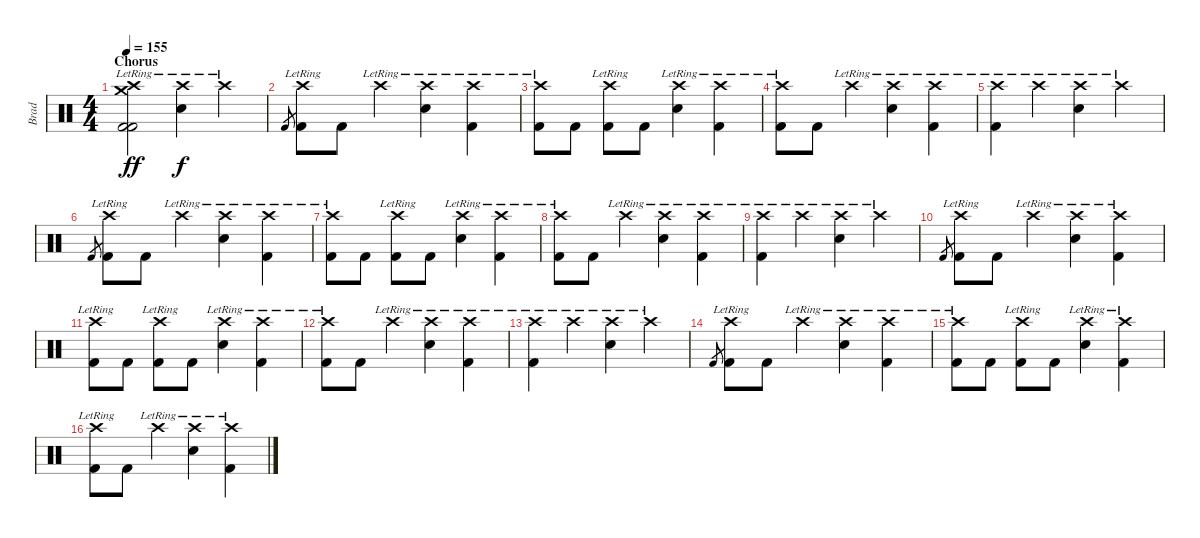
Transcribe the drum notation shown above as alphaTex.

\track ("Brad" "Brad") {instrument percussion}
\staff {score}
\articulation defaults
\ts (4 4)
\section ("" "Chorus")
\tempo 155
\clef neutral
\ks c
("Crash high (hit)"{lr} "Crash medium (hit)"{lr} "Kick (hit) 2" "Kick (hit) 2").2{dy ff} ("Crash high (hit)"{lr} "Electric Snare (hit)").4{dy f} "Crash high (hit)"{lr}.4 |
"Kick (hit) 2".8{gr} ("Crash high (hit)"{lr} "Kick (hit) 2").8 "Kick (hit) 2".8 "Crash high (hit)"{lr}.4 ("Crash high (hit)"{lr} "Electric Snare (hit)").4 ("Crash high (hit)"{lr} "Kick (hit) 2").4 |
("Crash high (hit)"{lr} "Kick (hit) 2").8 "Kick (hit) 2".8 ("Crash high (hit)"{lr} "Kick (hit) 2").8 "Kick (hit) 2".8 ("Crash high (hit)"{lr} "Electric Snare (hit)").4 ("Crash high (hit)"{lr} "Kick (hit) 2").4 |
("Crash high (hit)"{lr} "Kick (hit) 2").8 "Kick (hit) 2".8 "Crash high (hit)"{lr}.4 ("Crash high (hit)"{lr} "Electric Snare (hit)").4 ("Crash high (hit)"{lr} "Kick (hit) 2").4 |
("Crash high (hit)"{lr} "Kick (hit) 2").4 "Crash high (hit)"{lr}.4 ("Crash high (hit)"{lr} "Electric Snare (hit)").4 "Crash high (hit)"{lr}.4 |
"Kick (hit) 2".8{gr} ("Crash high (hit)"{lr} "Kick (hit) 2").8 "Kick (hit) 2".8 "Crash high (hit)"{lr}.4 ("Crash high (hit)"{lr} "Electric Snare (hit)").4 ("Crash high (hit)"{lr} "Kick (hit) 2").4 |
("Crash high (hit)"{lr} "Kick (hit) 2").8 "Kick (hit) 2".8 ("Crash high (hit)"{lr} "Kick (hit) 2").8 "Kick (hit) 2".8 ("Crash high (hit)"{lr} "Electric Snare (hit)").4 ("Crash high (hit)"{lr} "Kick (hit) 2").4 |
("Crash high (hit)"{lr} "Kick (hit) 2").8 "Kick (hit) 2".8 "Crash high (hit)"{lr}.4 ("Crash high (hit)"{lr} "Electric Snare (hit)").4 ("Crash high (hit)"{lr} "Kick (hit) 2").4 |
("Crash high (hit)"{lr} "Kick (hit) 2").4 "Crash high (hit)"{lr}.4 ("Crash high (hit)"{lr} "Electric Snare (hit)").4 "Crash high (hit)"{lr}.4 |
"Kick (hit) 2".8{gr} ("Crash high (hit)"{lr} "Kick (hit) 2").8 "Kick (hit) 2".8 "Crash high (hit)"{lr}.4 ("Crash high (hit)"{lr} "Electric Snare (hit)").4 ("Crash high (hit)"{lr} "Kick (hit) 2").4 |
("Crash high (hit)"{lr} "Kick (hit) 2").8 "Kick (hit) 2".8 ("Crash high (hit)"{lr} "Kick (hit) 2").8 "Kick (hit) 2".8 ("Crash high (hit)"{lr} "Electric Snare (hit)").4 ("Crash high (hit)"{lr} "Kick (hit) 2").4 |
("Crash high (hit)"{lr} "Kick (hit) 2").8 "Kick (hit) 2".8 "Crash high (hit)"{lr}.4 ("Crash high (hit)"{lr} "Electric Snare (hit)").4 ("Crash high (hit)"{lr} "Kick (hit) 2").4 |
("Crash high (hit)"{lr} "Kick (hit) 2").4 "Crash high (hit)"{lr}.4 ("Crash high (hit)"{lr} "Electric Snare (hit)").4 "Crash high (hit)"{lr}.4 |
"Kick (hit) 2".8{gr} ("Crash high (hit)"{lr} "Kick (hit) 2").8 "Kick (hit) 2".8 "Crash high (hit)"{lr}.4 ("Crash high (hit)"{lr} "Electric Snare (hit)").4 ("Crash high (hit)"{lr} "Kick (hit) 2").4 |
("Crash high (hit)"{lr} "Kick (hit) 2").8 "Kick (hit) 2".8 ("Crash high (hit)"{lr} "Kick (hit) 2").8 "Kick (hit) 2".8 ("Crash high (hit)"{lr} "Electric Snare (hit)").4 ("Crash high (hit)"{lr} "Kick (hit) 2").4 |
("Crash high (hit)"{lr} "Kick (hit) 2").8 "Kick (hit) 2".8 "Crash high (hit)"{lr}.4 ("Crash high (hit)"{lr} "Electric Snare (hit)").4 ("Crash high (hit)"{lr} "Kick (hit) 2").4
